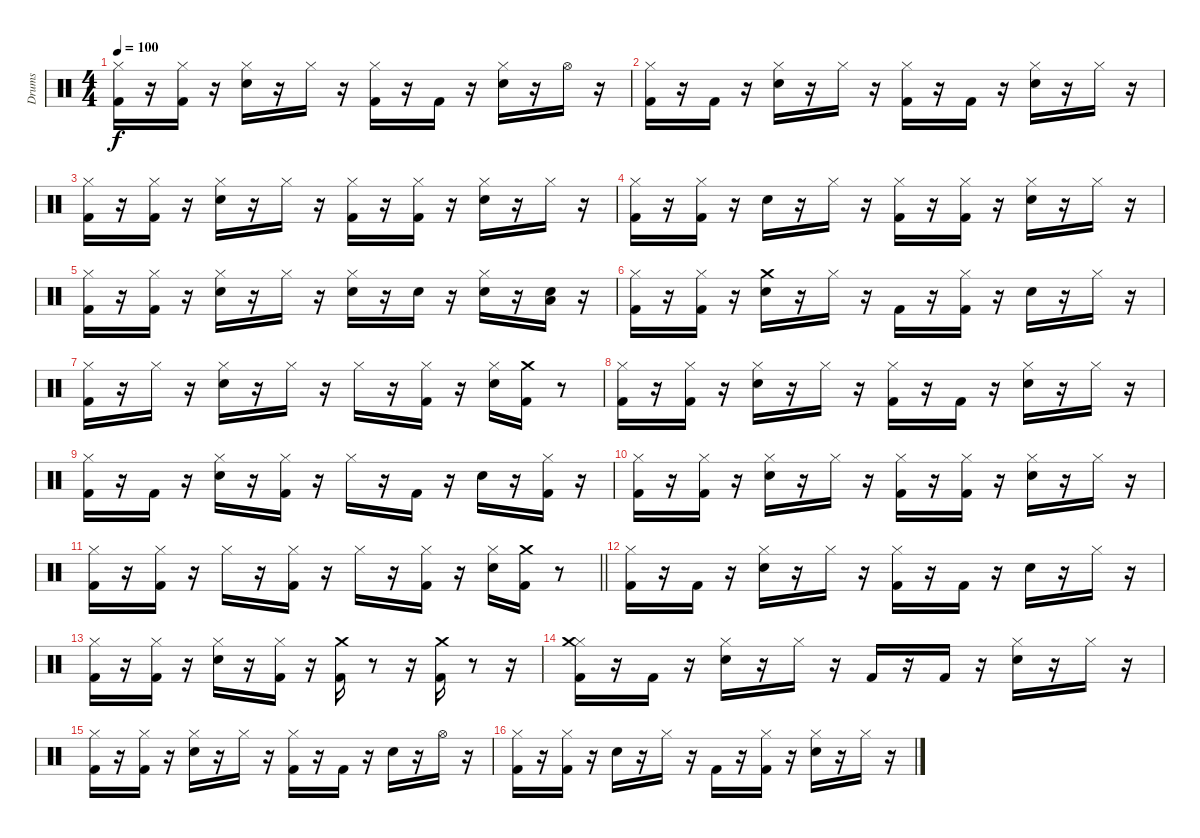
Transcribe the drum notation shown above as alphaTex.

\bracketExtendMode groupsimilarinstruments
\otherSystemsTrackNameOrientation horizontal
\track ("Drumkit" "Drums") {instrument percussion}
\staff {score}
\articulation defaults
\ts (4 4)
\tempo 100
\clef neutral
\ks c
("Kick (hit) 2" "Hi-Hat (closed)").16{dy f beam Down} r.16{beam Down} ("Kick (hit) 2" "Hi-Hat (closed)").16{beam Down} r.16{beam Down} ("Snare (hit) 2" "Hi-Hat (closed)").16{beam Down} r.16{beam Down} "Hi-Hat (closed)".16{beam Down} r.16{beam Down} ("Kick (hit) 2" "Hi-Hat (closed)").16{beam Down} r.16{beam Down} "Kick (hit) 2".16{beam Down} r.16{beam Down} ("Snare (hit) 2" "Hi-Hat (closed)").16{beam Down} r.16{beam Down} "Hi-Hat (open)".16{beam Down} r.16{beam Down} |
("Kick (hit) 2" "Hi-Hat (closed)").16{beam Down} r.16{beam Down} "Kick (hit) 2".16{beam Down} r.16{beam Down} ("Snare (hit) 2" "Hi-Hat (closed)").16{beam Down} r.16{beam Down} "Hi-Hat (closed)".16{beam Down} r.16{beam Down} ("Kick (hit) 2" "Hi-Hat (closed)").16{beam Down} r.16{beam Down} "Kick (hit) 2".16{beam Down} r.16{beam Down} ("Snare (hit) 2" "Hi-Hat (closed)").16{beam Down} r.16{beam Down} "Hi-Hat (closed)".16{beam Down} r.16{beam Down} |
("Kick (hit) 2" "Hi-Hat (closed)").16{beam Down} r.16{beam Down} ("Kick (hit) 2" "Hi-Hat (closed)").16{beam Down} r.16{beam Down} ("Snare (hit) 2" "Hi-Hat (closed)").16{beam Down} r.16{beam Down} "Hi-Hat (closed)".16{beam Down} r.16{beam Down} ("Kick (hit) 2" "Hi-Hat (closed)").16{beam Down} r.16{beam Down} ("Kick (hit) 2" "Hi-Hat (closed)").16{beam Down} r.16{beam Down} ("Snare (hit) 2" "Hi-Hat (closed)").16{beam Down} r.16{beam Down} "Hi-Hat (closed)".16{beam Down} r.16{beam Down} |
("Kick (hit) 2" "Hi-Hat (closed)").16{beam Down} r.16{beam Down} ("Kick (hit) 2" "Hi-Hat (closed)").16{beam Down} r.16{beam Down} "Snare (hit) 2".16{beam Down} r.16{beam Down} "Hi-Hat (closed)".16{beam Down} r.16{beam Down} ("Kick (hit) 2" "Hi-Hat (closed)").16{beam Down} r.16{beam Down} ("Kick (hit) 2" "Hi-Hat (closed)").16{beam Down} r.16{beam Down} ("Snare (hit) 2" "Hi-Hat (closed)").16{beam Down} r.16{beam Down} "Hi-Hat (closed)".16{beam Down} r.16{beam Down} |
("Kick (hit) 2" "Hi-Hat (closed)").16{beam Down} r.16{beam Down} ("Kick (hit) 2" "Hi-Hat (closed)").16{beam Down} r.16{beam Down} ("Snare (hit) 2" "Hi-Hat (closed)").16{beam Down} r.16{beam Down} "Hi-Hat (closed)".16{beam Down} r.16{beam Down} ("Snare (hit) 2" "Hi-Hat (closed)").16{beam Down} r.16{beam Down} "Snare (hit) 2".16{beam Down} r.16{beam Down} ("Snare (hit) 2" "Hi-Hat (closed)").16{beam Down} r.16{beam Down} ("Snare (hit) 2" "Low Tom (hit)").16{beam Down} r.16{beam Down} |
("Kick (hit) 2" "Hi-Hat (closed)").16{beam Down} r.16{beam Down} ("Kick (hit) 2" "Hi-Hat (closed)").16{beam Down} r.16{beam Down} ("Snare (hit) 2" "Crash medium (hit)").16{beam Down} r.16{beam Down} "Hi-Hat (closed)".16{beam Down} r.16{beam Down} "Kick (hit) 2".16{beam Down} r.16{beam Down} ("Kick (hit) 2" "Hi-Hat (closed)").16{beam Down} r.16{beam Down} "Snare (hit) 2".16{beam Down} r.16{beam Down} "Hi-Hat (closed)".16{beam Down} r.16{beam Down} |
("Kick (hit) 2" "Hi-Hat (closed)").16{beam Down} r.16{beam Down} "Hi-Hat (closed)".16{beam Down} r.16{beam Down} ("Snare (hit) 2" "Hi-Hat (closed)").16{beam Down} r.16{beam Down} "Hi-Hat (closed)".16{beam Down} r.16{beam Down} "Hi-Hat (closed)".16{beam Down} r.16{beam Down} ("Kick (hit) 2" "Hi-Hat (closed)").16{beam Down} r.16{beam Down} ("Snare (hit) 2" "Hi-Hat (closed)").16{beam Down} ("Kick (hit) 2" "Crash medium (hit)").16{beam Down} r.8{beam Down} |
("Kick (hit) 2" "Hi-Hat (closed)").16{beam Down} r.16{beam Down} ("Kick (hit) 2" "Hi-Hat (closed)").16{beam Down} r.16{beam Down} ("Snare (hit) 2" "Hi-Hat (closed)").16{beam Down} r.16{beam Down} "Hi-Hat (closed)".16{beam Down} r.16{beam Down} ("Kick (hit) 2" "Hi-Hat (closed)").16{beam Down} r.16{beam Down} "Kick (hit) 2".16{beam Down} r.16{beam Down} ("Snare (hit) 2" "Hi-Hat (closed)").16{beam Down} r.16{beam Down} "Hi-Hat (closed)".16{beam Down} r.16{beam Down} |
("Kick (hit) 2" "Hi-Hat (closed)").16{beam Down} r.16{beam Down} "Kick (hit) 2".16{beam Down} r.16{beam Down} ("Snare (hit) 2" "Hi-Hat (closed)").16{beam Down} r.16{beam Down} ("Kick (hit) 2" "Hi-Hat (closed)").16{beam Down} r.16{beam Down} "Hi-Hat (closed)".16{beam Down} r.16{beam Down} "Kick (hit) 2".16{beam Down} r.16{beam Down} "Snare (hit) 2".16{beam Down} r.16{beam Down} ("Kick (hit) 2" "Hi-Hat (closed)").16{beam Down} r.16{beam Down} |
("Kick (hit) 2" "Hi-Hat (closed)").16{beam Down} r.16{beam Down} ("Kick (hit) 2" "Hi-Hat (closed)").16{beam Down} r.16{beam Down} ("Snare (hit) 2" "Hi-Hat (closed)").16{beam Down} r.16{beam Down} "Hi-Hat (closed)".16{beam Down} r.16{beam Down} ("Kick (hit) 2" "Hi-Hat (closed)").16{beam Down} r.16{beam Down} ("Kick (hit) 2" "Hi-Hat (closed)").16{beam Down} r.16{beam Down} ("Snare (hit) 2" "Hi-Hat (closed)").16{beam Down} r.16{beam Down} "Hi-Hat (closed)".16{beam Down} r.16{beam Down} |
\barLineRight lightlight
("Kick (hit) 2" "Hi-Hat (closed)").16{beam Down} r.16{beam Down} ("Kick (hit) 2" "Hi-Hat (closed)").16{beam Down} r.16{beam Down} "Hi-Hat (closed)".16{beam Down} r.16{beam Down} ("Kick (hit) 2" "Hi-Hat (closed)").16{beam Down} r.16{beam Down} "Hi-Hat (closed)".16{beam Down} r.16{beam Down} ("Kick (hit) 2" "Hi-Hat (closed)").16{beam Down} r.16{beam Down} ("Snare (hit) 2" "Hi-Hat (closed)").16{beam Down} ("Kick (hit) 2" "Crash medium (hit)").16{beam Down} r.8{beam Down} |
("Kick (hit) 2" "Hi-Hat (closed)").16{beam Down} r.16{beam Down} "Kick (hit) 2".16{beam Down} r.16{beam Down} ("Snare (hit) 2" "Hi-Hat (closed)").16{beam Down} r.16{beam Down} "Hi-Hat (closed)".16{beam Down} r.16{beam Down} ("Kick (hit) 2" "Hi-Hat (closed)").16{beam Down} r.16{beam Down} "Kick (hit) 2".16{beam Down} r.16{beam Down} "Snare (hit) 2".16{beam Down} r.16{beam Down} "Hi-Hat (closed)".16{beam Down} r.16{beam Down} |
("Kick (hit) 2" "Hi-Hat (closed)").16{beam Down} r.16{beam Down} ("Kick (hit) 2" "Hi-Hat (closed)").16{beam Down} r.16{beam Down} ("Snare (hit) 2" "Hi-Hat (closed)").16{beam Down} r.16{beam Down} ("Kick (hit) 2" "Hi-Hat (closed)").16{beam Down} r.16{beam Down} ("Kick (hit) 2" "Crash medium (hit)").16{beam Down} r.8{beam Down} r.16{beam Down} ("Kick (hit) 2" "Crash medium (hit)").16{beam Down} r.8{beam Down} r.16{beam Down} |
("Kick (hit) 2" "Hi-Hat (closed)" "Crash medium (hit)").16{beam Down} r.16{beam Down} "Kick (hit) 2".16{beam Down} r.16{beam Down} ("Snare (hit) 2" "Hi-Hat (closed)").16{beam Down} r.16{beam Down} "Hi-Hat (closed)".16{beam Down} r.16{beam Down} "Kick (hit) 2".16{beam Up} r.16{beam Up} "Kick (hit) 2".16{beam Up} r.16{beam Up} ("Snare (hit) 2" "Hi-Hat (closed)").16{beam Down} r.16{beam Down} "Hi-Hat (closed)".16{beam Down} r.16{beam Down} |
("Kick (hit) 2" "Hi-Hat (closed)").16{beam Down} r.16{beam Down} ("Kick (hit) 2" "Hi-Hat (closed)").16{beam Down} r.16{beam Down} ("Snare (hit) 2" "Hi-Hat (closed)").16{beam Down} r.16{beam Down} "Hi-Hat (closed)".16{beam Down} r.16{beam Down} ("Kick (hit) 2" "Hi-Hat (closed)").16{beam Down} r.16{beam Down} "Kick (hit) 2".16{beam Down} r.16{beam Down} "Snare (hit) 2".16{beam Down} r.16{beam Down} "Hi-Hat (open)".16{beam Down} r.16{beam Down} |
("Kick (hit) 2" "Hi-Hat (closed)").16{beam Down} r.16{beam Down} ("Kick (hit) 2" "Hi-Hat (closed)").16{beam Down} r.16{beam Down} "Snare (hit) 2".16{beam Down} r.16{beam Down} "Hi-Hat (closed)".16{beam Down} r.16{beam Down} "Kick (hit) 2".16{beam Down} r.16{beam Down} ("Kick (hit) 2" "Hi-Hat (closed)").16{beam Down} r.16{beam Down} ("Snare (hit) 2" "Hi-Hat (closed)").16{beam Down} r.16{beam Down} "Hi-Hat (closed)".16{beam Down} r.16{beam Down}
